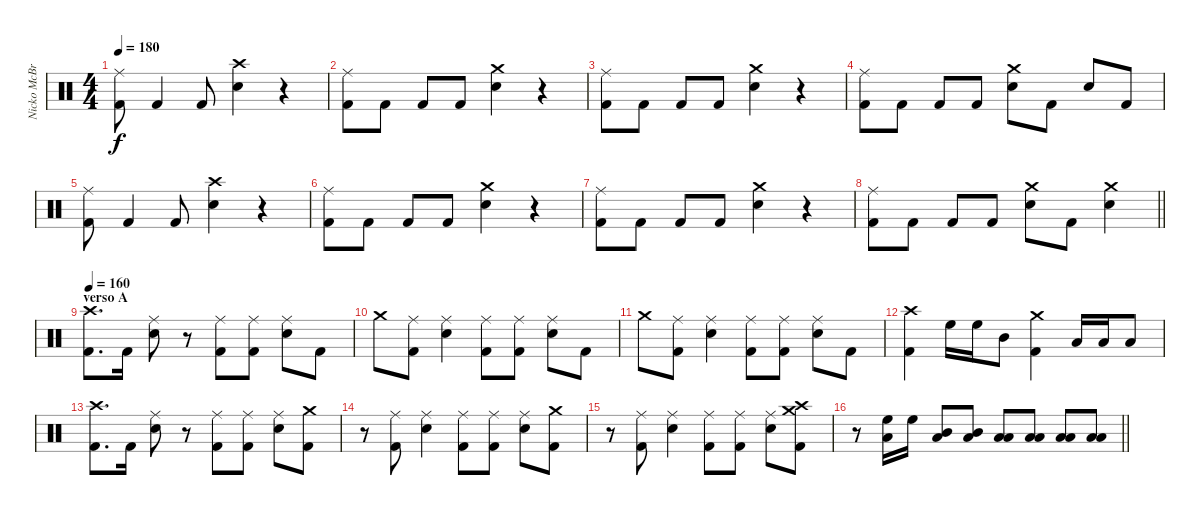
\track ("Nicko McBrain" "Nicko McBr") {instrument percussion}
\staff {score}
\articulation defaults
\ts (4 4)
\tempo 180
\clef neutral
\ks c
("Ride (middle)" "Kick (hit) 2").8{dy f} "Kick (hit) 2".4 "Kick (hit) 2".8 ("Crash high (hit)" "Snare (hit) 2").4 r.4 |
("Ride (middle)" "Kick (hit) 2").8 "Kick (hit) 2".8 "Kick (hit) 2".8 "Kick (hit) 2".8 ("Crash medium (hit)" "Snare (hit) 2").4 r.4 |
("Ride (middle)" "Kick (hit) 2").8 "Kick (hit) 2".8 "Kick (hit) 2".8 "Kick (hit) 2".8 ("Crash medium (hit)" "Snare (hit) 2").4 r.4 |
("Ride (middle)" "Kick (hit) 2").8 "Kick (hit) 2".8 "Kick (hit) 2".8 "Kick (hit) 2".8 ("Crash medium (hit)" "Snare (hit) 2").8 "Kick (hit) 2".8 "Snare (hit) 2".8 "Kick (hit) 2".8 |
("Ride (middle)" "Kick (hit) 2").8 "Kick (hit) 2".4 "Kick (hit) 2".8 ("Crash high (hit)" "Snare (hit) 2").4 r.4 |
("Ride (middle)" "Kick (hit) 2").8 "Kick (hit) 2".8 "Kick (hit) 2".8 "Kick (hit) 2".8 ("Crash medium (hit)" "Snare (hit) 2").4 r.4 |
("Ride (middle)" "Kick (hit) 2").8 "Kick (hit) 2".8 "Kick (hit) 2".8 "Kick (hit) 2".8 ("Crash medium (hit)" "Snare (hit) 2").4 r.4 |
\barLineRight lightlight
("Ride (middle)" "Kick (hit) 2").8 "Kick (hit) 2".8 "Kick (hit) 2".8 "Kick (hit) 2".8 ("Crash medium (hit)" "Snare (hit) 2").8 "Kick (hit) 2".8 ("Crash medium (hit)" "Snare (hit) 2").4 |
\section ("" "verso A")
\tempo 160
("Crash high (hit)" "Kick (hit) 2").8{d} "Kick (hit) 2".16 ("Ride (middle)" "Snare (hit) 2").8 r.8 ("Ride (middle)" "Kick (hit) 2").8 ("Ride (middle)" "Kick (hit) 2").8 ("Ride (middle)" "Snare (hit) 2").8 "Kick (hit) 2".8 |
"Crash medium (hit)".8 ("Ride (middle)" "Kick (hit) 2").8 ("Ride (middle)" "Snare (hit) 2").4 ("Ride (middle)" "Kick (hit) 2").8 ("Ride (middle)" "Kick (hit) 2").8 ("Ride (middle)" "Snare (hit) 2").8 "Kick (hit) 2".8 |
"Crash medium (hit)".8 ("Ride (middle)" "Kick (hit) 2").8 ("Ride (middle)" "Snare (hit) 2").4 ("Ride (middle)" "Kick (hit) 2").8 ("Ride (middle)" "Kick (hit) 2").8 ("Ride (middle)" "Snare (hit) 2").8 "Kick (hit) 2".8 |
("Crash high (hit)" "Kick (hit) 2").4 "High Floor Tom (hit)".16 "High Floor Tom (hit)".16 "Mid Tom (hit)".8 ("Crash medium (hit)" "Kick (hit) 2").4 "Low Tom (hit)".16 "Low Tom (hit)".16 "Low Floor Tom (hit)".8 |
("Crash high (hit)" "Kick (hit) 2").8{d} "Kick (hit) 2".16 ("Ride (middle)" "Snare (hit) 2").8 r.8 ("Ride (middle)" "Kick (hit) 2").8 ("Ride (middle)" "Kick (hit) 2").8 ("Ride (middle)" "Snare (hit) 2").8 ("Crash medium (hit)" "Kick (hit) 2").8 |
r.8 ("Ride (middle)" "Kick (hit) 2").8 ("Ride (middle)" "Snare (hit) 2").4 ("Ride (middle)" "Kick (hit) 2").8 ("Ride (middle)" "Kick (hit) 2").8 ("Ride (middle)" "Snare (hit) 2").8 ("Crash medium (hit)" "Kick (hit) 2").8 |
r.8 ("Ride (middle)" "Kick (hit) 2").8 ("Ride (middle)" "Snare (hit) 2").4 ("Ride (middle)" "Kick (hit) 2").8 ("Ride (middle)" "Kick (hit) 2").8 ("Ride (middle)" "Snare (hit) 2").8 ("Crash high (hit)" "Crash medium (hit)" "Kick (hit) 2").8 |
\barLineRight lightlight
r.8 ("High Floor Tom (hit)" "Low Floor Tom (hit)").16 "High Floor Tom (hit)".16 ("Mid Tom (hit)" "Low Floor Tom (hit)").8 ("Mid Tom (hit)" "Low Floor Tom (hit)").8 ("Low Tom (hit)" "Low Floor Tom (hit)").8 ("Low Tom (hit)" "Low Floor Tom (hit)").8 ("Low Floor Tom (hit)" "Low Floor Tom (hit)").8 ("Low Floor Tom (hit)" "Low Floor Tom (hit)").8
